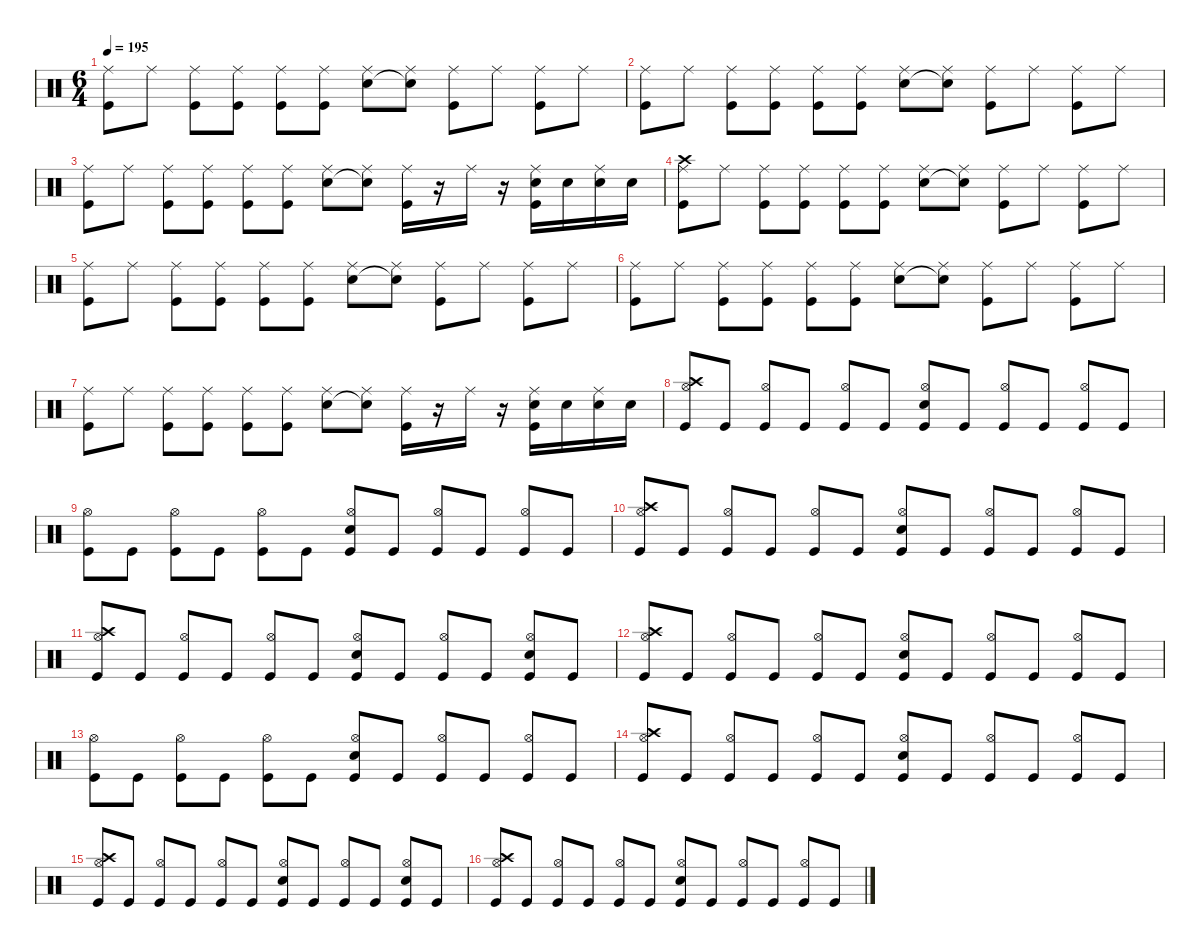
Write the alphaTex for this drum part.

\defaultSystemsLayout 4
\hideDynamics
\bracketExtendMode nobrackets
\singleTrackTrackNamePolicy hidden
\multiTrackTrackNamePolicy hidden
\firstSystemTrackNameMode fullname
\firstSystemTrackNameOrientation horizontal
\otherSystemsTrackNameOrientation horizontal
\track ("Percussion" "drm.") {defaultSystemsLayout 2 instrument percussion}
\staff {score}
\articulation defaults
\ts (6 4)
\tempo 195
\clef neutral
\ks c
("Ride (middle)" "Kick (hit)").8{dy f beam Down} "Ride (middle)".8{beam Down} ("Ride (middle)" "Kick (hit)").8{beam Down} ("Ride (middle)" "Kick (hit)").8{beam Down} ("Ride (middle)" "Kick (hit)").8{beam Down} ("Ride (middle)" "Kick (hit)").8{beam Down} ("Ride (middle)" "Snare (hit) 2").8{beam Down} ("Ride (middle)" "Snare (hit) 2"{t}).8{beam Down} ("Ride (middle)" "Kick (hit)").8{beam Down} "Ride (middle)".8{beam Down} ("Ride (middle)" "Kick (hit)").8{beam Down} "Ride (middle)".8{beam Down} |
("Ride (middle)" "Kick (hit)").8{beam Down} "Ride (middle)".8{beam Down} ("Ride (middle)" "Kick (hit)").8{beam Down} ("Ride (middle)" "Kick (hit)").8{beam Down} ("Ride (middle)" "Kick (hit)").8{beam Down} ("Ride (middle)" "Kick (hit)").8{beam Down} ("Ride (middle)" "Snare (hit) 2").8{beam Down} ("Ride (middle)" "Snare (hit) 2"{t}).8{beam Down} ("Ride (middle)" "Kick (hit)").8{beam Down} "Ride (middle)".8{beam Down} ("Ride (middle)" "Kick (hit)").8{beam Down} "Ride (middle)".8{beam Down} |
("Ride (middle)" "Kick (hit)").8{beam Down} "Ride (middle)".8{beam Down} ("Ride (middle)" "Kick (hit)").8{beam Down} ("Ride (middle)" "Kick (hit)").8{beam Down} ("Ride (middle)" "Kick (hit)").8{beam Down} ("Ride (middle)" "Kick (hit)").8{beam Down} ("Ride (middle)" "Snare (hit) 2").8{beam Down} ("Ride (middle)" "Snare (hit) 2"{t}).8{beam Down} ("Ride (middle)" "Kick (hit)").16{beam Down} r.16{beam Down} "Ride (middle)".16{beam Down} r.16{beam Down} ("Ride (middle)" "Snare (hit) 2" "Kick (hit)").16{beam Down} "Snare (hit) 2".16{beam Down} ("Ride (middle)" "Snare (hit) 2").16{beam Down} "Snare (hit) 2".16{beam Down} |
("Crash high (hit)" "Ride (middle)" "Kick (hit)").8{beam Down} "Ride (middle)".8{beam Down} ("Ride (middle)" "Kick (hit)").8{beam Down} ("Ride (middle)" "Kick (hit)").8{beam Down} ("Ride (middle)" "Kick (hit)").8{beam Down} ("Ride (middle)" "Kick (hit)").8{beam Down} ("Ride (middle)" "Snare (hit) 2").8{beam Down} ("Ride (middle)" "Snare (hit) 2"{t}).8{beam Down} ("Ride (middle)" "Kick (hit)").8{beam Down} "Ride (middle)".8{beam Down} ("Ride (middle)" "Kick (hit)").8{beam Down} "Ride (middle)".8{beam Down} |
("Ride (middle)" "Kick (hit)").8{beam Down} "Ride (middle)".8{beam Down} ("Ride (middle)" "Kick (hit)").8{beam Down} ("Ride (middle)" "Kick (hit)").8{beam Down} ("Ride (middle)" "Kick (hit)").8{beam Down} ("Ride (middle)" "Kick (hit)").8{beam Down} ("Ride (middle)" "Snare (hit) 2").8{beam Down} ("Ride (middle)" "Snare (hit) 2"{t}).8{beam Down} ("Ride (middle)" "Kick (hit)").8{beam Down} "Ride (middle)".8{beam Down} ("Ride (middle)" "Kick (hit)").8{beam Down} "Ride (middle)".8{beam Down} |
("Ride (middle)" "Kick (hit)").8{beam Down} "Ride (middle)".8{beam Down} ("Ride (middle)" "Kick (hit)").8{beam Down} ("Ride (middle)" "Kick (hit)").8{beam Down} ("Ride (middle)" "Kick (hit)").8{beam Down} ("Ride (middle)" "Kick (hit)").8{beam Down} ("Ride (middle)" "Snare (hit) 2").8{beam Down} ("Ride (middle)" "Snare (hit) 2"{t}).8{beam Down} ("Ride (middle)" "Kick (hit)").8{beam Down} "Ride (middle)".8{beam Down} ("Ride (middle)" "Kick (hit)").8{beam Down} "Ride (middle)".8{beam Down} |
("Ride (middle)" "Kick (hit)").8{beam Down} "Ride (middle)".8{beam Down} ("Ride (middle)" "Kick (hit)").8{beam Down} ("Ride (middle)" "Kick (hit)").8{beam Down} ("Ride (middle)" "Kick (hit)").8{beam Down} ("Ride (middle)" "Kick (hit)").8{beam Down} ("Ride (middle)" "Snare (hit) 2").8{beam Down} ("Ride (middle)" "Snare (hit) 2"{t}).8{beam Down} ("Ride (middle)" "Kick (hit)").16{beam Down} r.16{beam Down} "Ride (middle)".16{beam Down} r.16{beam Down} ("Ride (middle)" "Snare (hit) 2" "Kick (hit)").16{beam Down} "Snare (hit) 2".16{beam Down} ("Ride (middle)" "Snare (hit) 2").16{beam Down} "Snare (hit) 2".16{beam Down} |
("Crash high (hit)" "Hi-Hat (open)" "Kick (hit)").8{beam Up} "Kick (hit)".8{beam Up} ("Hi-Hat (open)" "Kick (hit)").8{beam Up} "Kick (hit)".8{beam Up} ("Hi-Hat (open)" "Kick (hit)").8{beam Up} "Kick (hit)".8{beam Up} ("Snare (hit) 2" "Hi-Hat (open)" "Kick (hit)").8{beam Up} "Kick (hit)".8{beam Up} ("Hi-Hat (open)" "Kick (hit)").8{beam Up} "Kick (hit)".8{beam Up} ("Hi-Hat (open)" "Kick (hit)").8{beam Up} "Kick (hit)".8{beam Up} |
("Hi-Hat (open)" "Kick (hit)").8{beam Down} "Kick (hit)".8{beam Down} ("Hi-Hat (open)" "Kick (hit)").8{beam Down} "Kick (hit)".8{beam Down} ("Hi-Hat (open)" "Kick (hit)").8{beam Down} "Kick (hit)".8{beam Down} ("Snare (hit) 2" "Hi-Hat (open)" "Kick (hit)").8{beam Up} "Kick (hit)".8{beam Up} ("Hi-Hat (open)" "Kick (hit)").8{beam Up} "Kick (hit)".8{beam Up} ("Hi-Hat (open)" "Kick (hit)").8{beam Up} "Kick (hit)".8{beam Up} |
("Crash high (hit)" "Hi-Hat (open)" "Kick (hit)").8{beam Up} "Kick (hit)".8{beam Up} ("Hi-Hat (open)" "Kick (hit)").8{beam Up} "Kick (hit)".8{beam Up} ("Hi-Hat (open)" "Kick (hit)").8{beam Up} "Kick (hit)".8{beam Up} ("Snare (hit) 2" "Hi-Hat (open)" "Kick (hit)").8{beam Up} "Kick (hit)".8{beam Up} ("Hi-Hat (open)" "Kick (hit)").8{beam Up} "Kick (hit)".8{beam Up} ("Hi-Hat (open)" "Kick (hit)").8{beam Up} "Kick (hit)".8{beam Up} |
("Crash high (hit)" "Hi-Hat (open)" "Kick (hit)").8{beam Up} "Kick (hit)".8{beam Up} ("Hi-Hat (open)" "Kick (hit)").8{beam Up} "Kick (hit)".8{beam Up} ("Hi-Hat (open)" "Kick (hit)").8{beam Up} "Kick (hit)".8{beam Up} ("Snare (hit) 2" "Hi-Hat (open)" "Kick (hit)").8{beam Up} "Kick (hit)".8{beam Up} ("Hi-Hat (open)" "Kick (hit)").8{beam Up} "Kick (hit)".8{beam Up} ("Snare (hit) 2" "Hi-Hat (open)" "Kick (hit)").8{beam Up} "Kick (hit)".8{beam Up} |
("Crash high (hit)" "Hi-Hat (open)" "Kick (hit)").8{beam Up} "Kick (hit)".8{beam Up} ("Hi-Hat (open)" "Kick (hit)").8{beam Up} "Kick (hit)".8{beam Up} ("Hi-Hat (open)" "Kick (hit)").8{beam Up} "Kick (hit)".8{beam Up} ("Snare (hit) 2" "Hi-Hat (open)" "Kick (hit)").8{beam Up} "Kick (hit)".8{beam Up} ("Hi-Hat (open)" "Kick (hit)").8{beam Up} "Kick (hit)".8{beam Up} ("Hi-Hat (open)" "Kick (hit)").8{beam Up} "Kick (hit)".8{beam Up} |
("Hi-Hat (open)" "Kick (hit)").8{beam Down} "Kick (hit)".8{beam Down} ("Hi-Hat (open)" "Kick (hit)").8{beam Down} "Kick (hit)".8{beam Down} ("Hi-Hat (open)" "Kick (hit)").8{beam Down} "Kick (hit)".8{beam Down} ("Snare (hit) 2" "Hi-Hat (open)" "Kick (hit)").8{beam Up} "Kick (hit)".8{beam Up} ("Hi-Hat (open)" "Kick (hit)").8{beam Up} "Kick (hit)".8{beam Up} ("Hi-Hat (open)" "Kick (hit)").8{beam Up} "Kick (hit)".8{beam Up} |
("Crash high (hit)" "Hi-Hat (open)" "Kick (hit)").8{beam Up} "Kick (hit)".8{beam Up} ("Hi-Hat (open)" "Kick (hit)").8{beam Up} "Kick (hit)".8{beam Up} ("Hi-Hat (open)" "Kick (hit)").8{beam Up} "Kick (hit)".8{beam Up} ("Snare (hit) 2" "Hi-Hat (open)" "Kick (hit)").8{beam Up} "Kick (hit)".8{beam Up} ("Hi-Hat (open)" "Kick (hit)").8{beam Up} "Kick (hit)".8{beam Up} ("Hi-Hat (open)" "Kick (hit)").8{beam Up} "Kick (hit)".8{beam Up} |
("Crash high (hit)" "Hi-Hat (open)" "Kick (hit)").8{beam Up} "Kick (hit)".8{beam Up} ("Hi-Hat (open)" "Kick (hit)").8{beam Up} "Kick (hit)".8{beam Up} ("Hi-Hat (open)" "Kick (hit)").8{beam Up} "Kick (hit)".8{beam Up} ("Snare (hit) 2" "Hi-Hat (open)" "Kick (hit)").8{beam Up} "Kick (hit)".8{beam Up} ("Hi-Hat (open)" "Kick (hit)").8{beam Up} "Kick (hit)".8{beam Up} ("Snare (hit) 2" "Hi-Hat (open)" "Kick (hit)").8{beam Up} "Kick (hit)".8{beam Up} |
("Crash high (hit)" "Hi-Hat (open)" "Kick (hit)").8{beam Up} "Kick (hit)".8{beam Up} ("Hi-Hat (open)" "Kick (hit)").8{beam Up} "Kick (hit)".8{beam Up} ("Hi-Hat (open)" "Kick (hit)").8{beam Up} "Kick (hit)".8{beam Up} ("Snare (hit) 2" "Hi-Hat (open)" "Kick (hit)").8{beam Up} "Kick (hit)".8{beam Up} ("Hi-Hat (open)" "Kick (hit)").8{beam Up} "Kick (hit)".8{beam Up} ("Hi-Hat (open)" "Kick (hit)").8{beam Up} "Kick (hit)".8{beam Up}
